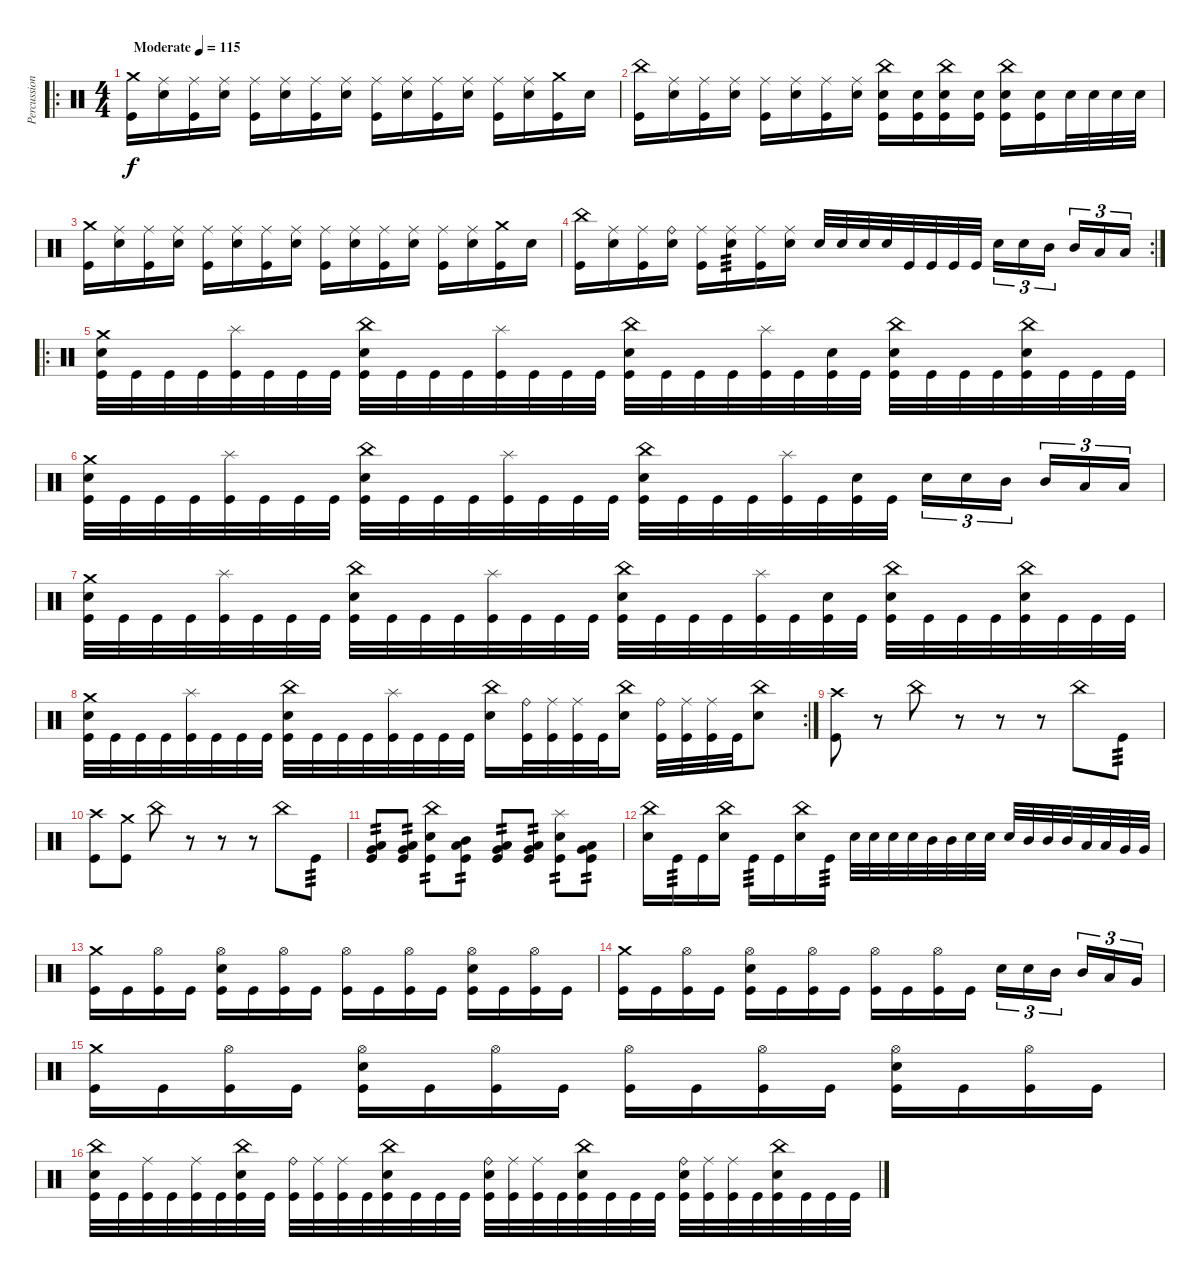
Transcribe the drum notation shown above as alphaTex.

\track ("Percussion" "Percussion") {instrument percussion}
\staff {score}
\articulation defaults
\ro
\ts (4 4)
\tempo (115 "Moderate")
\clef neutral
\ks c
("Crash medium (hit)" "Kick (hit)").16{dy f} ("Ride (middle)" "Electric Snare (hit)").16 ("Ride (middle)" "Kick (hit)").16 ("Ride (middle)" "Electric Snare (hit)").16 ("Ride (middle)" "Kick (hit)").16 ("Ride (middle)" "Electric Snare (hit)").16 ("Ride (middle)" "Kick (hit)").16 ("Ride (middle)" "Electric Snare (hit)").16 ("Ride (middle)" "Kick (hit)").16 ("Ride (middle)" "Electric Snare (hit)").16 ("Ride (middle)" "Kick (hit)").16 ("Ride (middle)" "Electric Snare (hit)").16 ("Ride (middle)" "Kick (hit)").16 ("Ride (middle)" "Electric Snare (hit)").16 ("Crash medium (hit)" "Kick (hit)").16 "Electric Snare (hit)".16 |
("China (hit)" "Kick (hit)").16 ("Ride (middle)" "Electric Snare (hit)").16 ("Ride (middle)" "Kick (hit)").16 ("Ride (middle)" "Electric Snare (hit)").16 ("Ride (middle)" "Kick (hit)").16 ("Ride (middle)" "Electric Snare (hit)").16 ("Ride (middle)" "Kick (hit)").16 ("Ride (middle)" "Electric Snare (hit)").16 ("China (hit)" "Electric Snare (hit)" "Kick (hit)").16 ("Electric Snare (hit)" "Kick (hit)").16 ("China (hit)" "Electric Snare (hit)" "Kick (hit)").16 ("Electric Snare (hit)" "Kick (hit)").16 ("China (hit)" "Electric Snare (hit)" "Kick (hit)").16 ("Electric Snare (hit)" "Kick (hit)").16 "Electric Snare (hit)".32 "Electric Snare (hit)".32 "Electric Snare (hit)".32 "Electric Snare (hit)".32 |
("Crash medium (hit)" "Kick (hit)").16 ("Ride (middle)" "Electric Snare (hit)").16 ("Ride (middle)" "Kick (hit)").16 ("Ride (middle)" "Electric Snare (hit)").16 ("Ride (middle)" "Kick (hit)").16 ("Ride (middle)" "Electric Snare (hit)").16 ("Ride (middle)" "Kick (hit)").16 ("Ride (middle)" "Electric Snare (hit)").16 ("Ride (middle)" "Kick (hit)").16 ("Ride (middle)" "Electric Snare (hit)").16 ("Ride (middle)" "Kick (hit)").16 ("Ride (middle)" "Electric Snare (hit)").16 ("Ride (middle)" "Kick (hit)").16 ("Ride (middle)" "Electric Snare (hit)").16 ("Crash medium (hit)" "Kick (hit)").16 "Electric Snare (hit)".16 |
\rc 2
("China (hit)" "Kick (hit)").16 ("Ride (middle)" "Electric Snare (hit)").16 ("Ride (middle)" "Kick (hit)").16 ("Ride (bell)" "Electric Snare (hit)").16 ("Ride (middle)" "Kick (hit)").16 ("Ride (middle)" "Electric Snare (hit)").16{tp 3} ("Ride (middle)" "Kick (hit)").16 ("Ride (middle)" "Electric Snare (hit)").16 "Electric Snare (hit)".32 "Electric Snare (hit)".32 "Electric Snare (hit)".32 "Electric Snare (hit)".32 "Kick (hit)".32 "Kick (hit)".32 "Kick (hit)".32 "Kick (hit)".32 "Electric Snare (hit)".16{tu (3 2)} "Electric Snare (hit)".16{tu (3 2)} "Mid Tom (hit)".16{tu (3 2) beam splitsecondary} "Mid Tom (hit)".16{tu (3 2)} "Low Tom (hit)".16{tu (3 2)} "Low Tom (hit)".16{tu (3 2)} |
\ro
("Crash medium (hit)" "Electric Snare (hit)" "Kick (hit)").32 "Kick (hit)".32 "Kick (hit)".32 "Kick (hit)".32 ("Splash (hit)" "Kick (hit)").32 "Kick (hit)".32 "Kick (hit)".32 "Kick (hit)".32 ("China (hit)" "Electric Snare (hit)" "Kick (hit)").32 "Kick (hit)".32 "Kick (hit)".32 "Kick (hit)".32 ("Splash (hit)" "Kick (hit)").32 "Kick (hit)".32 "Kick (hit)".32 "Kick (hit)".32 ("China (hit)" "Electric Snare (hit)" "Kick (hit)").32 "Kick (hit)".32 "Kick (hit)".32 "Kick (hit)".32 ("Splash (hit)" "Kick (hit)").32 "Kick (hit)".32 ("Electric Snare (hit)" "Kick (hit)").32 "Kick (hit)".32 ("China (hit)" "Electric Snare (hit)" "Kick (hit)").32 "Kick (hit)".32 "Kick (hit)".32 "Kick (hit)".32 ("China (hit)" "Electric Snare (hit)" "Kick (hit)").32 "Kick (hit)".32 "Kick (hit)".32 "Kick (hit)".32 |
("Crash medium (hit)" "Electric Snare (hit)" "Kick (hit)").32 "Kick (hit)".32 "Kick (hit)".32 "Kick (hit)".32 ("Splash (hit)" "Kick (hit)").32 "Kick (hit)".32 "Kick (hit)".32 "Kick (hit)".32 ("China (hit)" "Electric Snare (hit)" "Kick (hit)").32 "Kick (hit)".32 "Kick (hit)".32 "Kick (hit)".32 ("Splash (hit)" "Kick (hit)").32 "Kick (hit)".32 "Kick (hit)".32 "Kick (hit)".32 ("China (hit)" "Electric Snare (hit)" "Kick (hit)").32 "Kick (hit)".32 "Kick (hit)".32 "Kick (hit)".32 ("Splash (hit)" "Kick (hit)").32 "Kick (hit)".32 ("Electric Snare (hit)" "Kick (hit)").32 "Kick (hit)".32 "Electric Snare (hit)".16{tu (3 2)} "Electric Snare (hit)".16{tu (3 2)} "Mid Tom (hit)".16{tu (3 2) beam splitsecondary} "Mid Tom (hit)".16{tu (3 2)} "Low Tom (hit)".16{tu (3 2)} "Low Tom (hit)".16{tu (3 2)} |
("Crash medium (hit)" "Electric Snare (hit)" "Kick (hit)").32 "Kick (hit)".32 "Kick (hit)".32 "Kick (hit)".32 ("Splash (hit)" "Kick (hit)").32 "Kick (hit)".32 "Kick (hit)".32 "Kick (hit)".32 ("China (hit)" "Electric Snare (hit)" "Kick (hit)").32 "Kick (hit)".32 "Kick (hit)".32 "Kick (hit)".32 ("Splash (hit)" "Kick (hit)").32 "Kick (hit)".32 "Kick (hit)".32 "Kick (hit)".32 ("China (hit)" "Electric Snare (hit)" "Kick (hit)").32 "Kick (hit)".32 "Kick (hit)".32 "Kick (hit)".32 ("Splash (hit)" "Kick (hit)").32 "Kick (hit)".32 ("Electric Snare (hit)" "Kick (hit)").32 "Kick (hit)".32 ("China (hit)" "Electric Snare (hit)" "Kick (hit)").32 "Kick (hit)".32 "Kick (hit)".32 "Kick (hit)".32 ("China (hit)" "Electric Snare (hit)" "Kick (hit)").32 "Kick (hit)".32 "Kick (hit)".32 "Kick (hit)".32 |
\rc 2
("Crash medium (hit)" "Electric Snare (hit)" "Kick (hit)").32 "Kick (hit)".32 "Kick (hit)".32 "Kick (hit)".32 ("Splash (hit)" "Kick (hit)").32 "Kick (hit)".32 "Kick (hit)".32 "Kick (hit)".32 ("China (hit)" "Electric Snare (hit)" "Kick (hit)").32 "Kick (hit)".32 "Kick (hit)".32 "Kick (hit)".32 ("Splash (hit)" "Kick (hit)").32 "Kick (hit)".32 "Kick (hit)".32 "Kick (hit)".32 ("China (hit)" "Electric Snare (hit)").16 ("Ride (bell)" "Kick (hit)").32 ("Ride (middle)" "Kick (hit)").32 ("Ride (middle)" "Kick (hit)").32 "Kick (hit)".32 ("China (hit)" "Electric Snare (hit)").16 ("Ride (bell)" "Kick (hit)").32 ("Ride (middle)" "Kick (hit)").32 ("Ride (middle)" "Kick (hit)").32 "Kick (hit)".32 ("China (hit)" "Electric Snare (hit)").8 |
("Crash high (hit)" "Kick (hit)").8 r.8 "China (hit)".8 r.8 r.8 r.8 "China (hit)".8 "Kick (hit)".8{tp 3} |
("Crash high (hit)" "Kick (hit)").8 ("Crash medium (hit)" "Kick (hit)").8 "China (hit)".8 r.8 r.8 r.8 "China (hit)".8 "Kick (hit)".8{tp 3} |
("Very Low Tom (hit)" "Low Tom (hit)" "Kick (hit)").8{tp 2} ("Very Low Tom (hit)" "Low Tom (hit)" "Kick (hit)").8{tp 2} ("China (hit)" "Electric Snare (hit)" "Kick (hit)").8{tp 2} ("Mid Tom (hit)" "Low Tom (hit)" "Kick (hit)").8{tp 2} ("Very Low Tom (hit)" "Low Tom (hit)" "Kick (hit)").8{tp 2} ("Very Low Tom (hit)" "Low Tom (hit)" "Kick (hit)").8{tp 2} ("Electric Snare (hit)" "Splash (hit)" "Kick (hit)").8{tp 2} ("Very Low Tom (hit)" "Low Tom (hit)" "Kick (hit)").8{tp 2} |
("China (hit)" "Electric Snare (hit)").16 "Kick (hit)".16{tp 3} "Kick (hit)".16 ("China (hit)" "Electric Snare (hit)").16 "Kick (hit)".16{tp 3} "Kick (hit)".16 ("China (hit)" "Electric Snare (hit)").16 "Kick (hit)".16{tp 3} "Electric Snare (hit)".32 "Electric Snare (hit)".32 "Electric Snare (hit)".32 "Electric Snare (hit)".32 "Mid Tom (hit)".32 "Mid Tom (hit)".32 "Electric Snare (hit)".32 "Electric Snare (hit)".32 "Electric Snare (hit)".32 "Mid Tom (hit)".32 "Mid Tom (hit)".32 "Mid Tom (hit)".32 "Low Tom (hit)".32 "Low Tom (hit)".32 "Very Low Tom (hit)".32 "Very Low Tom (hit)".32 |
("Crash medium (hit)" "Kick (hit)").16 "Kick (hit)".16 ("Hi-Hat (open)" "Kick (hit)").16 "Kick (hit)".16 ("Hi-Hat (open)" "Electric Snare (hit)" "Kick (hit)").16 "Kick (hit)".16 ("Hi-Hat (open)" "Kick (hit)").16 "Kick (hit)".16 ("Hi-Hat (open)" "Kick (hit)").16 "Kick (hit)".16 ("Hi-Hat (open)" "Kick (hit)").16 "Kick (hit)".16 ("Hi-Hat (open)" "Electric Snare (hit)" "Kick (hit)").16 "Kick (hit)".16 ("Hi-Hat (open)" "Kick (hit)").16 "Kick (hit)".16 |
("Crash medium (hit)" "Kick (hit)").16 "Kick (hit)".16 ("Hi-Hat (open)" "Kick (hit)").16 "Kick (hit)".16 ("Hi-Hat (open)" "Electric Snare (hit)" "Kick (hit)").16 "Kick (hit)".16 ("Hi-Hat (open)" "Kick (hit)").16 "Kick (hit)".16 ("Hi-Hat (open)" "Kick (hit)").16 "Kick (hit)".16 ("Hi-Hat (open)" "Kick (hit)").16 "Kick (hit)".16 "Electric Snare (hit)".16{tu (3 2)} "Electric Snare (hit)".16{tu (3 2)} "Mid Tom (hit)".16{tu (3 2) beam splitsecondary} "Mid Tom (hit)".16{tu (3 2)} "Low Tom (hit)".16{tu (3 2)} "Very Low Tom (hit)".16{tu (3 2)} |
("Crash medium (hit)" "Kick (hit)").16 "Kick (hit)".16 ("Hi-Hat (open)" "Kick (hit)").16 "Kick (hit)".16 ("Hi-Hat (open)" "Electric Snare (hit)" "Kick (hit)").16 "Kick (hit)".16 ("Hi-Hat (open)" "Kick (hit)").16 "Kick (hit)".16 ("Hi-Hat (open)" "Kick (hit)").16 "Kick (hit)".16 ("Hi-Hat (open)" "Kick (hit)").16 "Kick (hit)".16 ("Hi-Hat (open)" "Electric Snare (hit)" "Kick (hit)").16 "Kick (hit)".16 ("Hi-Hat (open)" "Kick (hit)").16 "Kick (hit)".16 |
("China (hit)" "Electric Snare (hit)" "Kick (hit)").32 "Kick (hit)".32 ("Ride (middle)" "Kick (hit)").32 "Kick (hit)".32 ("Ride (middle)" "Kick (hit)").32 "Kick (hit)".32 ("China (hit)" "Electric Snare (hit)" "Kick (hit)").32 "Kick (hit)".32 ("Ride (bell)" "Kick (hit)").32 ("Ride (middle)" "Kick (hit)").32 ("Ride (middle)" "Kick (hit)").32 "Kick (hit)".32 ("China (hit)" "Electric Snare (hit)" "Kick (hit)").32 "Kick (hit)".32 "Kick (hit)".32 "Kick (hit)".32 ("Ride (bell)" "Electric Snare (hit)" "Kick (hit)").32 ("Ride (middle)" "Kick (hit)").32 ("Ride (middle)" "Kick (hit)").32 "Kick (hit)".32 ("China (hit)" "Electric Snare (hit)" "Kick (hit)").32 "Kick (hit)".32 "Kick (hit)".32 "Kick (hit)".32 ("Ride (bell)" "Electric Snare (hit)" "Kick (hit)").32 ("Ride (middle)" "Kick (hit)").32 ("Ride (middle)" "Kick (hit)").32 "Kick (hit)".32 ("China (hit)" "Electric Snare (hit)" "Kick (hit)").32 "Kick (hit)".32 "Kick (hit)".32 "Kick (hit)".32
